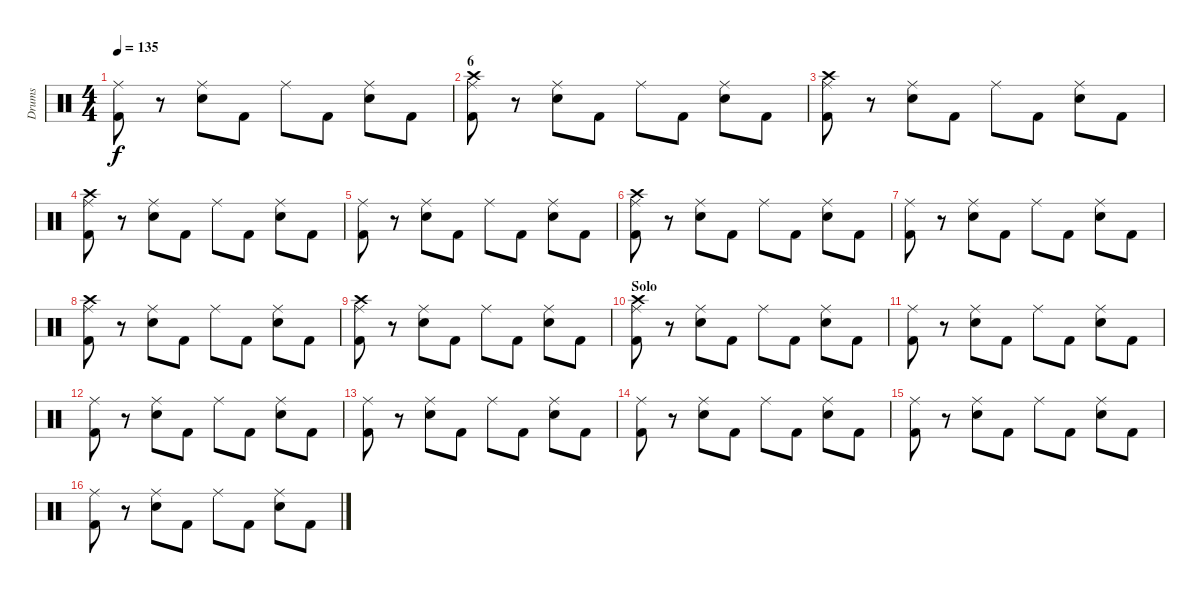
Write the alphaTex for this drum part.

\track ("Drums" "Drums") {instrument percussion}
\staff {score}
\articulation defaults
\ts (4 4)
\tempo 135
\clef neutral
\ks c
("Ride (middle)" "Kick (hit) 2").8{dy f} r.8 ("Ride (middle)" "Snare (hit) 2").8 "Kick (hit) 2".8 "Ride (middle)".8 "Kick (hit) 2".8 ("Ride (middle)" "Snare (hit) 2").8 "Kick (hit) 2".8 |
\section ("" "6")
("Ride (middle)" "Kick (hit) 2" "Crash high (hit)").8 r.8 ("Ride (middle)" "Snare (hit) 2").8 "Kick (hit) 2".8 "Ride (middle)".8 "Kick (hit) 2".8 ("Ride (middle)" "Snare (hit) 2").8 "Kick (hit) 2".8 |
("Ride (middle)" "Kick (hit) 2" "Crash high (hit)").8 r.8 ("Ride (middle)" "Snare (hit) 2").8 "Kick (hit) 2".8 "Ride (middle)".8 "Kick (hit) 2".8 ("Ride (middle)" "Snare (hit) 2").8 "Kick (hit) 2".8 |
("Ride (middle)" "Kick (hit) 2" "Crash high (hit)").8 r.8 ("Ride (middle)" "Snare (hit) 2").8 "Kick (hit) 2".8 "Ride (middle)".8 "Kick (hit) 2".8 ("Ride (middle)" "Snare (hit) 2").8 "Kick (hit) 2".8 |
("Ride (middle)" "Kick (hit) 2").8 r.8 ("Ride (middle)" "Snare (hit) 2").8 "Kick (hit) 2".8 "Ride (middle)".8 "Kick (hit) 2".8 ("Ride (middle)" "Snare (hit) 2").8 "Kick (hit) 2".8 |
("Ride (middle)" "Kick (hit) 2" "Crash high (hit)").8 r.8 ("Ride (middle)" "Snare (hit) 2").8 "Kick (hit) 2".8 "Ride (middle)".8 "Kick (hit) 2".8 ("Ride (middle)" "Snare (hit) 2").8 "Kick (hit) 2".8 |
("Ride (middle)" "Kick (hit) 2").8 r.8 ("Ride (middle)" "Snare (hit) 2").8 "Kick (hit) 2".8 "Ride (middle)".8 "Kick (hit) 2".8 ("Ride (middle)" "Snare (hit) 2").8 "Kick (hit) 2".8 |
("Ride (middle)" "Kick (hit) 2" "Crash high (hit)").8 r.8 ("Ride (middle)" "Snare (hit) 2").8 "Kick (hit) 2".8 "Ride (middle)".8 "Kick (hit) 2".8 ("Ride (middle)" "Snare (hit) 2").8 "Kick (hit) 2".8 |
("Ride (middle)" "Kick (hit) 2" "Crash high (hit)").8 r.8 ("Ride (middle)" "Snare (hit) 2").8 "Kick (hit) 2".8 "Ride (middle)".8 "Kick (hit) 2".8 ("Ride (middle)" "Snare (hit) 2").8 "Kick (hit) 2".8 |
\section ("" "Solo")
("Ride (middle)" "Kick (hit) 2" "Crash high (hit)").8 r.8 ("Ride (middle)" "Snare (hit) 2").8 "Kick (hit) 2".8 "Ride (middle)".8 "Kick (hit) 2".8 ("Ride (middle)" "Snare (hit) 2").8 "Kick (hit) 2".8 |
("Ride (middle)" "Kick (hit) 2").8 r.8 ("Ride (middle)" "Snare (hit) 2").8 "Kick (hit) 2".8 "Ride (middle)".8 "Kick (hit) 2".8 ("Ride (middle)" "Snare (hit) 2").8 "Kick (hit) 2".8 |
("Ride (middle)" "Kick (hit) 2").8 r.8 ("Ride (middle)" "Snare (hit) 2").8 "Kick (hit) 2".8 "Ride (middle)".8 "Kick (hit) 2".8 ("Ride (middle)" "Snare (hit) 2").8 "Kick (hit) 2".8 |
("Ride (middle)" "Kick (hit) 2").8 r.8 ("Ride (middle)" "Snare (hit) 2").8 "Kick (hit) 2".8 "Ride (middle)".8 "Kick (hit) 2".8 ("Ride (middle)" "Snare (hit) 2").8 "Kick (hit) 2".8 |
("Ride (middle)" "Kick (hit) 2").8 r.8 ("Ride (middle)" "Snare (hit) 2").8 "Kick (hit) 2".8 "Ride (middle)".8 "Kick (hit) 2".8 ("Ride (middle)" "Snare (hit) 2").8 "Kick (hit) 2".8 |
("Ride (middle)" "Kick (hit) 2").8 r.8 ("Ride (middle)" "Snare (hit) 2").8 "Kick (hit) 2".8 "Ride (middle)".8 "Kick (hit) 2".8 ("Ride (middle)" "Snare (hit) 2").8 "Kick (hit) 2".8 |
("Ride (middle)" "Kick (hit) 2").8 r.8 ("Ride (middle)" "Snare (hit) 2").8 "Kick (hit) 2".8 "Ride (middle)".8 "Kick (hit) 2".8 ("Ride (middle)" "Snare (hit) 2").8 "Kick (hit) 2".8
